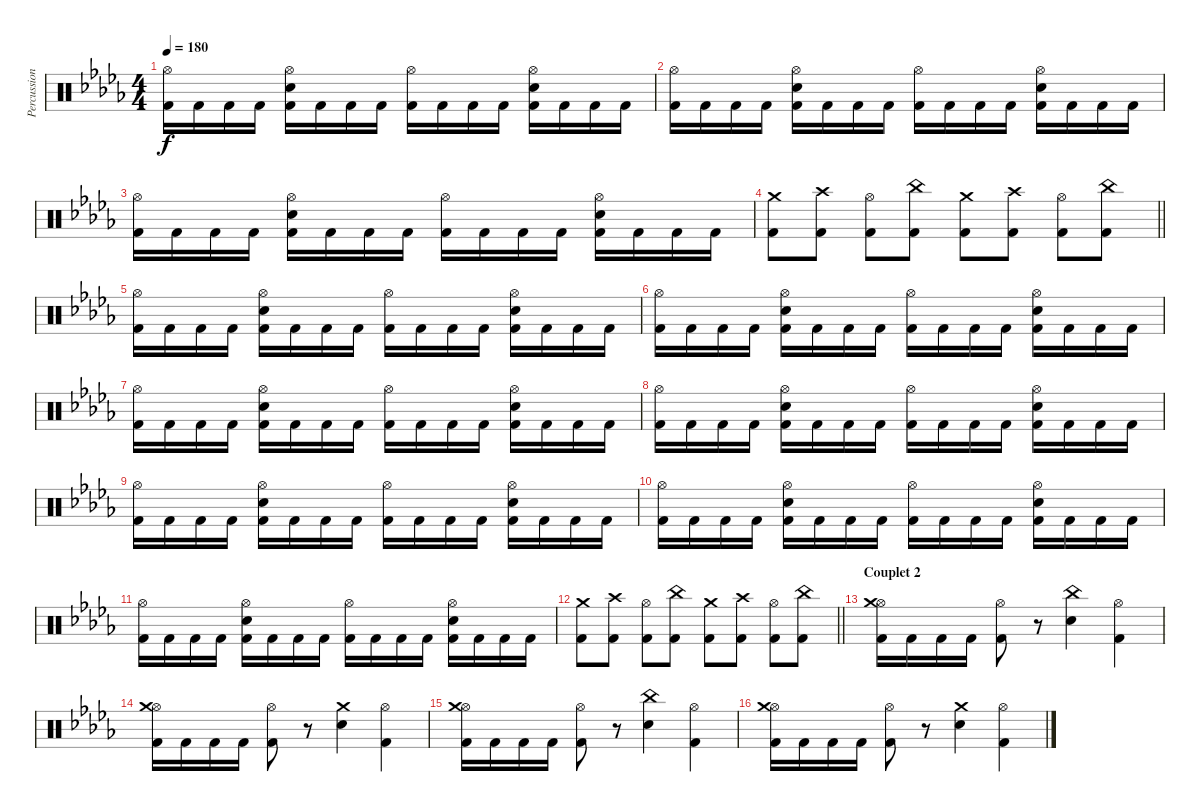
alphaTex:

\track ("Percussions" "Percussion") {instrument percussion}
\staff {score}
\articulation defaults
\ts (4 4)
\tempo 180
\clef neutral
\ks bbminor
("Hi-Hat (open)" "Kick (hit) 2").16{dy f} "Kick (hit) 2".16 "Kick (hit) 2".16 "Kick (hit) 2".16 ("Hi-Hat (open)" "Electric Snare (hit)" "Kick (hit) 2").16 "Kick (hit) 2".16 "Kick (hit) 2".16 "Kick (hit) 2".16 ("Hi-Hat (open)" "Kick (hit) 2").16 "Kick (hit) 2".16 "Kick (hit) 2".16 "Kick (hit) 2".16 ("Hi-Hat (open)" "Electric Snare (hit)" "Kick (hit) 2").16 "Kick (hit) 2".16 "Kick (hit) 2".16 "Kick (hit) 2".16 |
("Hi-Hat (open)" "Kick (hit) 2").16 "Kick (hit) 2".16 "Kick (hit) 2".16 "Kick (hit) 2".16 ("Hi-Hat (open)" "Electric Snare (hit)" "Kick (hit) 2").16 "Kick (hit) 2".16 "Kick (hit) 2".16 "Kick (hit) 2".16 ("Hi-Hat (open)" "Kick (hit) 2").16 "Kick (hit) 2".16 "Kick (hit) 2".16 "Kick (hit) 2".16 ("Hi-Hat (open)" "Electric Snare (hit)" "Kick (hit) 2").16 "Kick (hit) 2".16 "Kick (hit) 2".16 "Kick (hit) 2".16 |
("Hi-Hat (open)" "Kick (hit) 2").16 "Kick (hit) 2".16 "Kick (hit) 2".16 "Kick (hit) 2".16 ("Hi-Hat (open)" "Electric Snare (hit)" "Kick (hit) 2").16 "Kick (hit) 2".16 "Kick (hit) 2".16 "Kick (hit) 2".16 ("Hi-Hat (open)" "Kick (hit) 2").16 "Kick (hit) 2".16 "Kick (hit) 2".16 "Kick (hit) 2".16 ("Hi-Hat (open)" "Electric Snare (hit)" "Kick (hit) 2").16 "Kick (hit) 2".16 "Kick (hit) 2".16 "Kick (hit) 2".16 |
\barLineRight lightlight
("Crash medium (hit)" "Kick (hit) 2").8 ("Crash high (hit)" "Kick (hit) 2").8 ("Hi-Hat (open)" "Kick (hit) 2").8 ("China (hit)" "Kick (hit) 2").8 ("Crash medium (hit)" "Kick (hit) 2").8 ("Crash high (hit)" "Kick (hit) 2").8 ("Hi-Hat (open)" "Kick (hit) 2").8 ("China (hit)" "Kick (hit) 2").8 |
("Hi-Hat (open)" "Kick (hit) 2").16 "Kick (hit) 2".16 "Kick (hit) 2".16 "Kick (hit) 2".16 ("Hi-Hat (open)" "Electric Snare (hit)" "Kick (hit) 2").16 "Kick (hit) 2".16 "Kick (hit) 2".16 "Kick (hit) 2".16 ("Hi-Hat (open)" "Kick (hit) 2").16 "Kick (hit) 2".16 "Kick (hit) 2".16 "Kick (hit) 2".16 ("Hi-Hat (open)" "Electric Snare (hit)" "Kick (hit) 2").16 "Kick (hit) 2".16 "Kick (hit) 2".16 "Kick (hit) 2".16 |
("Hi-Hat (open)" "Kick (hit) 2").16 "Kick (hit) 2".16 "Kick (hit) 2".16 "Kick (hit) 2".16 ("Hi-Hat (open)" "Electric Snare (hit)" "Kick (hit) 2").16 "Kick (hit) 2".16 "Kick (hit) 2".16 "Kick (hit) 2".16 ("Hi-Hat (open)" "Kick (hit) 2").16 "Kick (hit) 2".16 "Kick (hit) 2".16 "Kick (hit) 2".16 ("Hi-Hat (open)" "Electric Snare (hit)" "Kick (hit) 2").16 "Kick (hit) 2".16 "Kick (hit) 2".16 "Kick (hit) 2".16 |
("Hi-Hat (open)" "Kick (hit) 2").16 "Kick (hit) 2".16 "Kick (hit) 2".16 "Kick (hit) 2".16 ("Hi-Hat (open)" "Electric Snare (hit)" "Kick (hit) 2").16 "Kick (hit) 2".16 "Kick (hit) 2".16 "Kick (hit) 2".16 ("Hi-Hat (open)" "Kick (hit) 2").16 "Kick (hit) 2".16 "Kick (hit) 2".16 "Kick (hit) 2".16 ("Hi-Hat (open)" "Electric Snare (hit)" "Kick (hit) 2").16 "Kick (hit) 2".16 "Kick (hit) 2".16 "Kick (hit) 2".16 |
("Hi-Hat (open)" "Kick (hit) 2").16 "Kick (hit) 2".16 "Kick (hit) 2".16 "Kick (hit) 2".16 ("Hi-Hat (open)" "Electric Snare (hit)" "Kick (hit) 2").16 "Kick (hit) 2".16 "Kick (hit) 2".16 "Kick (hit) 2".16 ("Hi-Hat (open)" "Kick (hit) 2").16 "Kick (hit) 2".16 "Kick (hit) 2".16 "Kick (hit) 2".16 ("Hi-Hat (open)" "Electric Snare (hit)" "Kick (hit) 2").16 "Kick (hit) 2".16 "Kick (hit) 2".16 "Kick (hit) 2".16 |
("Hi-Hat (open)" "Kick (hit) 2").16 "Kick (hit) 2".16 "Kick (hit) 2".16 "Kick (hit) 2".16 ("Hi-Hat (open)" "Electric Snare (hit)" "Kick (hit) 2").16 "Kick (hit) 2".16 "Kick (hit) 2".16 "Kick (hit) 2".16 ("Hi-Hat (open)" "Kick (hit) 2").16 "Kick (hit) 2".16 "Kick (hit) 2".16 "Kick (hit) 2".16 ("Hi-Hat (open)" "Electric Snare (hit)" "Kick (hit) 2").16 "Kick (hit) 2".16 "Kick (hit) 2".16 "Kick (hit) 2".16 |
("Hi-Hat (open)" "Kick (hit) 2").16 "Kick (hit) 2".16 "Kick (hit) 2".16 "Kick (hit) 2".16 ("Hi-Hat (open)" "Electric Snare (hit)" "Kick (hit) 2").16 "Kick (hit) 2".16 "Kick (hit) 2".16 "Kick (hit) 2".16 ("Hi-Hat (open)" "Kick (hit) 2").16 "Kick (hit) 2".16 "Kick (hit) 2".16 "Kick (hit) 2".16 ("Hi-Hat (open)" "Electric Snare (hit)" "Kick (hit) 2").16 "Kick (hit) 2".16 "Kick (hit) 2".16 "Kick (hit) 2".16 |
("Hi-Hat (open)" "Kick (hit) 2").16 "Kick (hit) 2".16 "Kick (hit) 2".16 "Kick (hit) 2".16 ("Hi-Hat (open)" "Electric Snare (hit)" "Kick (hit) 2").16 "Kick (hit) 2".16 "Kick (hit) 2".16 "Kick (hit) 2".16 ("Hi-Hat (open)" "Kick (hit) 2").16 "Kick (hit) 2".16 "Kick (hit) 2".16 "Kick (hit) 2".16 ("Hi-Hat (open)" "Electric Snare (hit)" "Kick (hit) 2").16 "Kick (hit) 2".16 "Kick (hit) 2".16 "Kick (hit) 2".16 |
\barLineRight lightlight
("Crash medium (hit)" "Kick (hit) 2").8 ("Crash high (hit)" "Kick (hit) 2").8 ("Hi-Hat (open)" "Kick (hit) 2").8 ("China (hit)" "Kick (hit) 2").8 ("Crash medium (hit)" "Kick (hit) 2").8 ("Crash high (hit)" "Kick (hit) 2").8 ("Hi-Hat (open)" "Kick (hit) 2").8 ("China (hit)" "Kick (hit) 2").8 |
\section ("" "Couplet 2")
("Hi-Hat (open)" "Crash medium (hit)" "Kick (hit) 2").16 "Kick (hit) 2".16 "Kick (hit) 2".16 "Kick (hit) 2".16 ("Hi-Hat (open)" "Kick (hit) 2").8 r.8 ("China (hit)" "Electric Snare (hit)").4 ("Hi-Hat (open)" "Kick (hit) 2").4 |
("Hi-Hat (open)" "Crash medium (hit)" "Kick (hit) 2").16 "Kick (hit) 2".16 "Kick (hit) 2".16 "Kick (hit) 2".16 ("Hi-Hat (open)" "Kick (hit) 2").8 r.8 ("Crash medium (hit)" "Electric Snare (hit)").4 ("Hi-Hat (open)" "Kick (hit) 2").4 |
("Hi-Hat (open)" "Crash medium (hit)" "Kick (hit) 2").16 "Kick (hit) 2".16 "Kick (hit) 2".16 "Kick (hit) 2".16 ("Hi-Hat (open)" "Kick (hit) 2").8 r.8 ("China (hit)" "Electric Snare (hit)").4 ("Hi-Hat (open)" "Kick (hit) 2").4 |
("Hi-Hat (open)" "Crash medium (hit)" "Kick (hit) 2").16 "Kick (hit) 2".16 "Kick (hit) 2".16 "Kick (hit) 2".16 ("Hi-Hat (open)" "Kick (hit) 2").8 r.8 ("Crash medium (hit)" "Electric Snare (hit)").4 ("Hi-Hat (open)" "Kick (hit) 2").4
